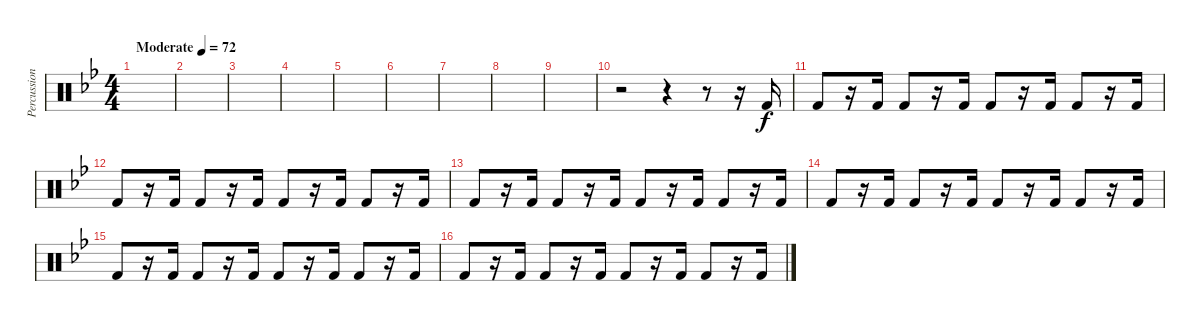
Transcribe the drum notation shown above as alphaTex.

\track ("Percussion" "Percussion") {instrument percussion}
\staff {score}
\articulation defaults
\ts (4 4)
\tempo (72 "Moderate")
\clef neutral
\ks bb
|
|
|
|
|
|
|
|
|
r.2 r.4 r.8 r.16 "Kick (hit) 2".16 |
"Kick (hit) 2".8 r.16 "Kick (hit) 2".16 "Kick (hit) 2".8 r.16 "Kick (hit) 2".16 "Kick (hit) 2".8 r.16 "Kick (hit) 2".16 "Kick (hit) 2".8 r.16 "Kick (hit) 2".16 |
"Kick (hit) 2".8 r.16 "Kick (hit) 2".16 "Kick (hit) 2".8 r.16 "Kick (hit) 2".16 "Kick (hit) 2".8 r.16 "Kick (hit) 2".16 "Kick (hit) 2".8 r.16 "Kick (hit) 2".16 |
"Kick (hit) 2".8 r.16 "Kick (hit) 2".16 "Kick (hit) 2".8 r.16 "Kick (hit) 2".16 "Kick (hit) 2".8 r.16 "Kick (hit) 2".16 "Kick (hit) 2".8 r.16 "Kick (hit) 2".16 |
"Kick (hit) 2".8 r.16 "Kick (hit) 2".16 "Kick (hit) 2".8 r.16 "Kick (hit) 2".16 "Kick (hit) 2".8 r.16 "Kick (hit) 2".16 "Kick (hit) 2".8 r.16 "Kick (hit) 2".16 |
"Kick (hit) 2".8 r.16 "Kick (hit) 2".16 "Kick (hit) 2".8 r.16 "Kick (hit) 2".16 "Kick (hit) 2".8 r.16 "Kick (hit) 2".16 "Kick (hit) 2".8 r.16 "Kick (hit) 2".16 |
"Kick (hit) 2".8 r.16 "Kick (hit) 2".16 "Kick (hit) 2".8 r.16 "Kick (hit) 2".16 "Kick (hit) 2".8 r.16 "Kick (hit) 2".16 "Kick (hit) 2".8 r.16 "Kick (hit) 2".16
